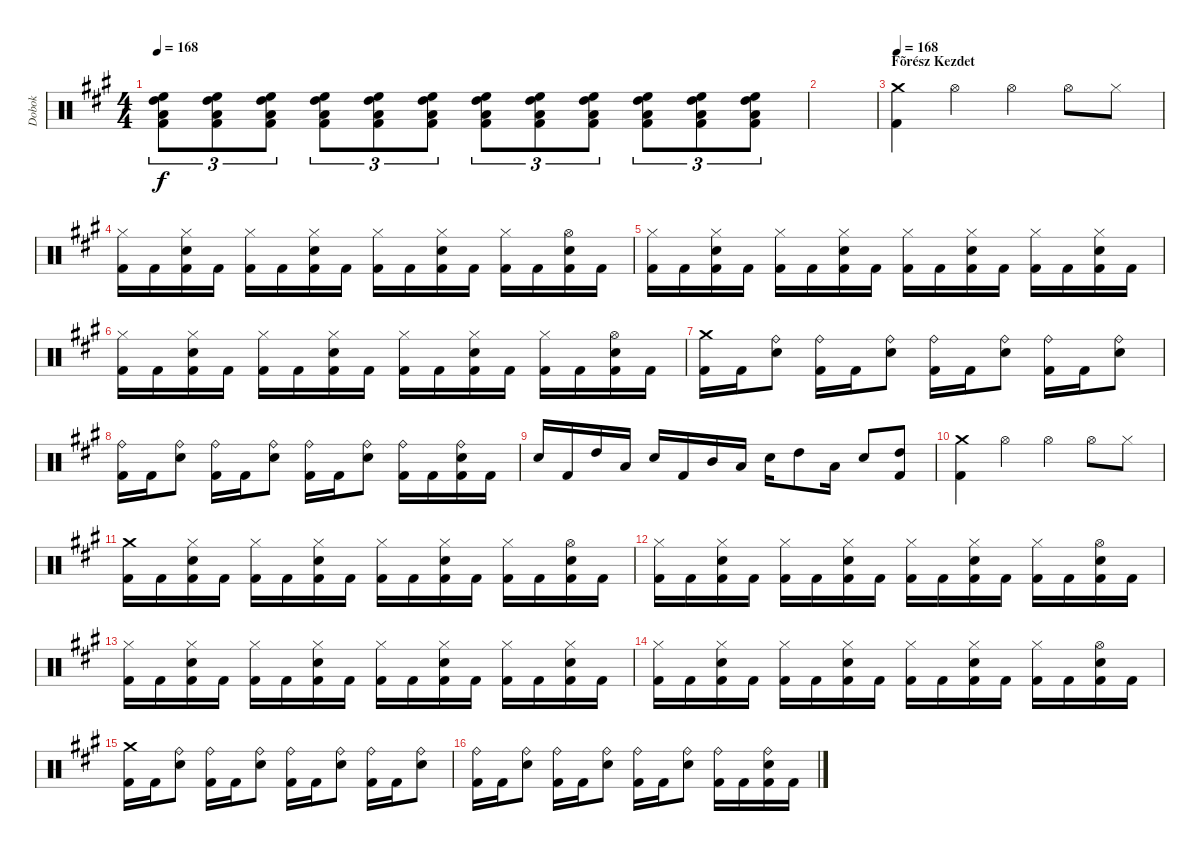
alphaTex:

\track ("Dobok" "Dobok") {instrument percussion}
\staff {score}
\articulation defaults
\ts (4 4)
\tempo 168
\clef neutral
\ks f#minor
("High Floor Tom (hit)" "High Tom (hit)" "Low Floor Tom (hit)" "Kick (hit) 2").8{tu (3 2) dy f} ("High Floor Tom (hit)" "High Tom (hit)" "Low Floor Tom (hit)" "Kick (hit) 2").8{tu (3 2)} ("High Floor Tom (hit)" "High Tom (hit)" "Low Floor Tom (hit)" "Kick (hit) 2").8{tu (3 2)} ("High Floor Tom (hit)" "High Tom (hit)" "Low Floor Tom (hit)" "Kick (hit) 2").8{tu (3 2)} ("High Floor Tom (hit)" "High Tom (hit)" "Low Floor Tom (hit)" "Kick (hit) 2").8{tu (3 2)} ("High Floor Tom (hit)" "High Tom (hit)" "Low Floor Tom (hit)" "Kick (hit) 2").8{tu (3 2)} ("High Floor Tom (hit)" "High Tom (hit)" "Low Floor Tom (hit)" "Kick (hit) 2").8{tu (3 2)} ("High Floor Tom (hit)" "High Tom (hit)" "Low Floor Tom (hit)" "Kick (hit) 2").8{tu (3 2)} ("High Floor Tom (hit)" "High Tom (hit)" "Low Floor Tom (hit)" "Kick (hit) 2").8{tu (3 2)} ("High Floor Tom (hit)" "High Tom (hit)" "Low Floor Tom (hit)" "Kick (hit) 2").8{tu (3 2)} ("High Floor Tom (hit)" "High Tom (hit)" "Low Floor Tom (hit)" "Kick (hit) 2").8{tu (3 2)} ("High Floor Tom (hit)" "High Tom (hit)" "Low Floor Tom (hit)" "Kick (hit) 2").8{tu (3 2)} |
|
\section ("" "Fõrész Kezdet")
\tempo 168
("Crash medium (hit)" "Kick (hit) 2").4 "Hi-Hat (open)".4 "Hi-Hat (open)".4 "Hi-Hat (open)".8 "Hi-Hat (closed)".8 |
("Hi-Hat (closed)" "Kick (hit) 2").16 "Kick (hit) 2".16 ("Hi-Hat (closed)" "Snare (hit) 2" "Kick (hit) 2").16 "Kick (hit) 2".16 ("Hi-Hat (closed)" "Kick (hit) 2").16 "Kick (hit) 2".16 ("Hi-Hat (closed)" "Snare (hit) 2" "Kick (hit) 2").16 "Kick (hit) 2".16 ("Hi-Hat (closed)" "Kick (hit) 2").16 "Kick (hit) 2".16 ("Hi-Hat (closed)" "Snare (hit) 2" "Kick (hit) 2").16 "Kick (hit) 2".16 ("Hi-Hat (closed)" "Kick (hit) 2").16 "Kick (hit) 2".16 ("Hi-Hat (open)" "Snare (hit) 2" "Kick (hit) 2").16 "Kick (hit) 2".16 |
("Hi-Hat (closed)" "Kick (hit) 2").16 "Kick (hit) 2".16 ("Hi-Hat (closed)" "Snare (hit) 2" "Kick (hit) 2").16 "Kick (hit) 2".16 ("Hi-Hat (closed)" "Kick (hit) 2").16 "Kick (hit) 2".16 ("Hi-Hat (closed)" "Snare (hit) 2" "Kick (hit) 2").16 "Kick (hit) 2".16 ("Hi-Hat (closed)" "Kick (hit) 2").16 "Kick (hit) 2".16 ("Hi-Hat (closed)" "Snare (hit) 2" "Kick (hit) 2").16 "Kick (hit) 2".16 ("Hi-Hat (closed)" "Kick (hit) 2").16 "Kick (hit) 2".16 ("Hi-Hat (closed)" "Snare (hit) 2" "Kick (hit) 2").16 "Kick (hit) 2".16 |
("Hi-Hat (closed)" "Kick (hit) 2").16 "Kick (hit) 2".16 ("Hi-Hat (closed)" "Snare (hit) 2" "Kick (hit) 2").16 "Kick (hit) 2".16 ("Hi-Hat (closed)" "Kick (hit) 2").16 "Kick (hit) 2".16 ("Hi-Hat (closed)" "Snare (hit) 2" "Kick (hit) 2").16 "Kick (hit) 2".16 ("Hi-Hat (closed)" "Kick (hit) 2").16 "Kick (hit) 2".16 ("Hi-Hat (closed)" "Snare (hit) 2" "Kick (hit) 2").16 "Kick (hit) 2".16 ("Hi-Hat (closed)" "Kick (hit) 2").16 "Kick (hit) 2".16 ("Hi-Hat (open)" "Snare (hit) 2" "Kick (hit) 2").16 "Kick (hit) 2".16 |
("Crash medium (hit)" "Kick (hit) 2").16 "Kick (hit) 2".16 ("Ride (bell)" "Snare (hit) 2").8 ("Ride (bell)" "Kick (hit) 2").16 "Kick (hit) 2".16 ("Ride (bell)" "Snare (hit) 2").8 ("Ride (bell)" "Kick (hit) 2").16 "Kick (hit) 2".16 ("Ride (bell)" "Snare (hit) 2").8 ("Ride (bell)" "Kick (hit) 2").16 "Kick (hit) 2".16 ("Ride (bell)" "Snare (hit) 2").8 |
("Ride (bell)" "Kick (hit) 2").16 "Kick (hit) 2".16 ("Ride (bell)" "Snare (hit) 2").8 ("Ride (bell)" "Kick (hit) 2").16 "Kick (hit) 2".16 ("Ride (bell)" "Snare (hit) 2").8 ("Ride (bell)" "Kick (hit) 2").16 "Kick (hit) 2".16 ("Ride (bell)" "Snare (hit) 2").8 ("Ride (bell)" "Kick (hit) 2").16 "Kick (hit) 2".16 ("Ride (bell)" "Snare (hit) 2" "Kick (hit) 2").16 "Kick (hit) 2".16 |
"Snare (hit) 2".16 "Kick (hit) 2".16 "High Tom (hit)".16 "Low Tom (hit)".16 "Snare (hit) 2".16 "Kick (hit) 2".16 "Mid Tom (hit)".16 "Low Tom (hit)".16 "Snare (hit) 2".16 "High Tom (hit)".8 "Low Tom (hit)".16 "Snare (hit) 2".8 ("High Tom (hit)" "Kick (hit) 2").8 |
("Crash medium (hit)" "Kick (hit) 2").4 "Hi-Hat (open)".4 "Hi-Hat (open)".4 "Hi-Hat (open)".8 "Hi-Hat (closed)".8 |
("Crash medium (hit)" "Kick (hit) 2").16 "Kick (hit) 2".16 ("Hi-Hat (closed)" "Snare (hit) 2" "Kick (hit) 2").16 "Kick (hit) 2".16 ("Hi-Hat (closed)" "Kick (hit) 2").16 "Kick (hit) 2".16 ("Hi-Hat (closed)" "Snare (hit) 2" "Kick (hit) 2").16 "Kick (hit) 2".16 ("Hi-Hat (closed)" "Kick (hit) 2").16 "Kick (hit) 2".16 ("Hi-Hat (closed)" "Snare (hit) 2" "Kick (hit) 2").16 "Kick (hit) 2".16 ("Hi-Hat (closed)" "Kick (hit) 2").16 "Kick (hit) 2".16 ("Hi-Hat (open)" "Snare (hit) 2" "Kick (hit) 2").16 "Kick (hit) 2".16 |
("Hi-Hat (closed)" "Kick (hit) 2").16 "Kick (hit) 2".16 ("Hi-Hat (closed)" "Snare (hit) 2" "Kick (hit) 2").16 "Kick (hit) 2".16 ("Hi-Hat (closed)" "Kick (hit) 2").16 "Kick (hit) 2".16 ("Hi-Hat (closed)" "Snare (hit) 2" "Kick (hit) 2").16 "Kick (hit) 2".16 ("Hi-Hat (closed)" "Kick (hit) 2").16 "Kick (hit) 2".16 ("Hi-Hat (closed)" "Snare (hit) 2" "Kick (hit) 2").16 "Kick (hit) 2".16 ("Hi-Hat (closed)" "Kick (hit) 2").16 "Kick (hit) 2".16 ("Hi-Hat (open)" "Snare (hit) 2" "Kick (hit) 2").16 "Kick (hit) 2".16 |
("Hi-Hat (closed)" "Kick (hit) 2").16 "Kick (hit) 2".16 ("Hi-Hat (closed)" "Snare (hit) 2" "Kick (hit) 2").16 "Kick (hit) 2".16 ("Hi-Hat (closed)" "Kick (hit) 2").16 "Kick (hit) 2".16 ("Hi-Hat (closed)" "Snare (hit) 2" "Kick (hit) 2").16 "Kick (hit) 2".16 ("Hi-Hat (closed)" "Kick (hit) 2").16 "Kick (hit) 2".16 ("Hi-Hat (closed)" "Snare (hit) 2" "Kick (hit) 2").16 "Kick (hit) 2".16 ("Hi-Hat (closed)" "Kick (hit) 2").16 "Kick (hit) 2".16 ("Hi-Hat (closed)" "Snare (hit) 2" "Kick (hit) 2").16 "Kick (hit) 2".16 |
("Hi-Hat (closed)" "Kick (hit) 2").16 "Kick (hit) 2".16 ("Hi-Hat (closed)" "Snare (hit) 2" "Kick (hit) 2").16 "Kick (hit) 2".16 ("Hi-Hat (closed)" "Kick (hit) 2").16 "Kick (hit) 2".16 ("Hi-Hat (closed)" "Snare (hit) 2" "Kick (hit) 2").16 "Kick (hit) 2".16 ("Hi-Hat (closed)" "Kick (hit) 2").16 "Kick (hit) 2".16 ("Hi-Hat (closed)" "Snare (hit) 2" "Kick (hit) 2").16 "Kick (hit) 2".16 ("Hi-Hat (closed)" "Kick (hit) 2").16 "Kick (hit) 2".16 ("Hi-Hat (open)" "Snare (hit) 2" "Kick (hit) 2").16 "Kick (hit) 2".16 |
("Crash medium (hit)" "Kick (hit) 2").16 "Kick (hit) 2".16 ("Ride (bell)" "Snare (hit) 2").8 ("Ride (bell)" "Kick (hit) 2").16 "Kick (hit) 2".16 ("Ride (bell)" "Snare (hit) 2").8 ("Ride (bell)" "Kick (hit) 2").16 "Kick (hit) 2".16 ("Ride (bell)" "Snare (hit) 2").8 ("Ride (bell)" "Kick (hit) 2").16 "Kick (hit) 2".16 ("Ride (bell)" "Snare (hit) 2").8 |
("Ride (bell)" "Kick (hit) 2").16 "Kick (hit) 2".16 ("Ride (bell)" "Snare (hit) 2").8 ("Ride (bell)" "Kick (hit) 2").16 "Kick (hit) 2".16 ("Ride (bell)" "Snare (hit) 2").8 ("Ride (bell)" "Kick (hit) 2").16 "Kick (hit) 2".16 ("Ride (bell)" "Snare (hit) 2").8 ("Ride (bell)" "Kick (hit) 2").16 "Kick (hit) 2".16 ("Ride (bell)" "Snare (hit) 2" "Kick (hit) 2").16 "Kick (hit) 2".16
